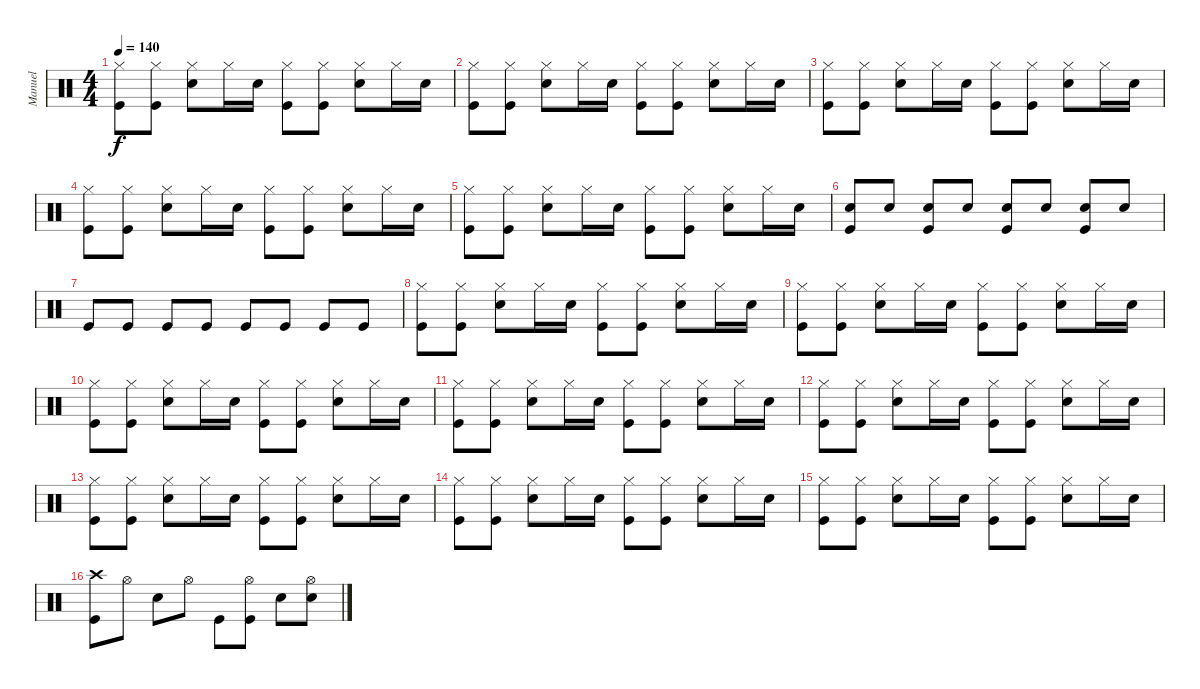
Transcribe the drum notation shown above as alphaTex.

\track ("Manuel" "Manuel") {instrument percussion}
\staff {score}
\articulation defaults
\ts (4 4)
\tempo 140
\clef neutral
\ks c
("Hi-Hat (closed)" "Kick (hit)").8{dy f} ("Hi-Hat (closed)" "Kick (hit)").8 ("Hi-Hat (closed)" "Snare (hit) 2").8 "Hi-Hat (closed)".16 "Snare (hit) 2".16 ("Hi-Hat (closed)" "Kick (hit)").8 ("Hi-Hat (closed)" "Kick (hit)").8 ("Hi-Hat (closed)" "Snare (hit) 2").8 "Hi-Hat (closed)".16 "Snare (hit) 2".16 |
("Hi-Hat (closed)" "Kick (hit)").8 ("Hi-Hat (closed)" "Kick (hit)").8 ("Hi-Hat (closed)" "Snare (hit) 2").8 "Hi-Hat (closed)".16 "Snare (hit) 2".16 ("Hi-Hat (closed)" "Kick (hit)").8 ("Hi-Hat (closed)" "Kick (hit)").8 ("Hi-Hat (closed)" "Snare (hit) 2").8 "Hi-Hat (closed)".16 "Snare (hit) 2".16 |
("Hi-Hat (closed)" "Kick (hit)").8 ("Hi-Hat (closed)" "Kick (hit)").8 ("Hi-Hat (closed)" "Snare (hit) 2").8 "Hi-Hat (closed)".16 "Snare (hit) 2".16 ("Hi-Hat (closed)" "Kick (hit)").8 ("Hi-Hat (closed)" "Kick (hit)").8 ("Hi-Hat (closed)" "Snare (hit) 2").8 "Hi-Hat (closed)".16 "Snare (hit) 2".16 |
("Hi-Hat (closed)" "Kick (hit)").8 ("Hi-Hat (closed)" "Kick (hit)").8 ("Hi-Hat (closed)" "Snare (hit) 2").8 "Hi-Hat (closed)".16 "Snare (hit) 2".16 ("Hi-Hat (closed)" "Kick (hit)").8 ("Hi-Hat (closed)" "Kick (hit)").8 ("Hi-Hat (closed)" "Snare (hit) 2").8 "Hi-Hat (closed)".16 "Snare (hit) 2".16 |
("Hi-Hat (closed)" "Kick (hit)").8 ("Hi-Hat (closed)" "Kick (hit)").8 ("Hi-Hat (closed)" "Snare (hit) 2").8 "Hi-Hat (closed)".16 "Snare (hit) 2".16 ("Hi-Hat (closed)" "Kick (hit)").8 ("Hi-Hat (closed)" "Kick (hit)").8 ("Hi-Hat (closed)" "Snare (hit) 2").8 "Hi-Hat (closed)".16 "Snare (hit) 2".16 |
("Kick (hit)" "Electric Snare (hit)").8 "Electric Snare (hit)".8 ("Kick (hit)" "Electric Snare (hit)").8 "Electric Snare (hit)".8 ("Kick (hit)" "Electric Snare (hit)").8 "Electric Snare (hit)".8 ("Kick (hit)" "Electric Snare (hit)").8 "Electric Snare (hit)".8 |
"Kick (hit)".8 "Kick (hit)".8 "Kick (hit)".8 "Kick (hit)".8 "Kick (hit)".8 "Kick (hit)".8 "Kick (hit)".8 "Kick (hit)".8 |
("Hi-Hat (closed)" "Kick (hit)").8 ("Hi-Hat (closed)" "Kick (hit)").8 ("Hi-Hat (closed)" "Snare (hit) 2").8 "Hi-Hat (closed)".16 "Snare (hit) 2".16 ("Hi-Hat (closed)" "Kick (hit)").8 ("Hi-Hat (closed)" "Kick (hit)").8 ("Hi-Hat (closed)" "Snare (hit) 2").8 "Hi-Hat (closed)".16 "Snare (hit) 2".16 |
("Hi-Hat (closed)" "Kick (hit)").8 ("Hi-Hat (closed)" "Kick (hit)").8 ("Hi-Hat (closed)" "Snare (hit) 2").8 "Hi-Hat (closed)".16 "Snare (hit) 2".16 ("Hi-Hat (closed)" "Kick (hit)").8 ("Hi-Hat (closed)" "Kick (hit)").8 ("Hi-Hat (closed)" "Snare (hit) 2").8 "Hi-Hat (closed)".16 "Snare (hit) 2".16 |
("Hi-Hat (closed)" "Kick (hit)").8 ("Hi-Hat (closed)" "Kick (hit)").8 ("Hi-Hat (closed)" "Snare (hit) 2").8 "Hi-Hat (closed)".16 "Snare (hit) 2".16 ("Hi-Hat (closed)" "Kick (hit)").8 ("Hi-Hat (closed)" "Kick (hit)").8 ("Hi-Hat (closed)" "Snare (hit) 2").8 "Hi-Hat (closed)".16 "Snare (hit) 2".16 |
("Hi-Hat (closed)" "Kick (hit)").8 ("Hi-Hat (closed)" "Kick (hit)").8 ("Hi-Hat (closed)" "Snare (hit) 2").8 "Hi-Hat (closed)".16 "Snare (hit) 2".16 ("Hi-Hat (closed)" "Kick (hit)").8 ("Hi-Hat (closed)" "Kick (hit)").8 ("Hi-Hat (closed)" "Snare (hit) 2").8 "Hi-Hat (closed)".16 "Snare (hit) 2".16 |
("Hi-Hat (closed)" "Kick (hit)").8 ("Hi-Hat (closed)" "Kick (hit)").8 ("Hi-Hat (closed)" "Snare (hit) 2").8 "Hi-Hat (closed)".16 "Snare (hit) 2".16 ("Hi-Hat (closed)" "Kick (hit)").8 ("Hi-Hat (closed)" "Kick (hit)").8 ("Hi-Hat (closed)" "Snare (hit) 2").8 "Hi-Hat (closed)".16 "Snare (hit) 2".16 |
("Hi-Hat (closed)" "Kick (hit)").8 ("Hi-Hat (closed)" "Kick (hit)").8 ("Hi-Hat (closed)" "Snare (hit) 2").8 "Hi-Hat (closed)".16 "Snare (hit) 2".16 ("Hi-Hat (closed)" "Kick (hit)").8 ("Hi-Hat (closed)" "Kick (hit)").8 ("Hi-Hat (closed)" "Snare (hit) 2").8 "Hi-Hat (closed)".16 "Snare (hit) 2".16 |
("Hi-Hat (closed)" "Kick (hit)").8 ("Hi-Hat (closed)" "Kick (hit)").8 ("Hi-Hat (closed)" "Snare (hit) 2").8 "Hi-Hat (closed)".16 "Snare (hit) 2".16 ("Hi-Hat (closed)" "Kick (hit)").8 ("Hi-Hat (closed)" "Kick (hit)").8 ("Hi-Hat (closed)" "Snare (hit) 2").8 "Hi-Hat (closed)".16 "Snare (hit) 2".16 |
("Hi-Hat (closed)" "Kick (hit)").8 ("Hi-Hat (closed)" "Kick (hit)").8 ("Hi-Hat (closed)" "Snare (hit) 2").8 "Hi-Hat (closed)".16 "Snare (hit) 2".16 ("Hi-Hat (closed)" "Kick (hit)").8 ("Hi-Hat (closed)" "Kick (hit)").8 ("Hi-Hat (closed)" "Snare (hit) 2").8 "Hi-Hat (closed)".16 "Snare (hit) 2".16 |
("Crash high (hit)" "Kick (hit)").8 "Hi-Hat (open)".8 "Electric Snare (hit)".8 "Hi-Hat (open)".8 "Kick (hit)".8 ("Kick (hit)" "Hi-Hat (open)").8 "Electric Snare (hit)".8 ("Electric Snare (hit)" "Hi-Hat (open)").8
